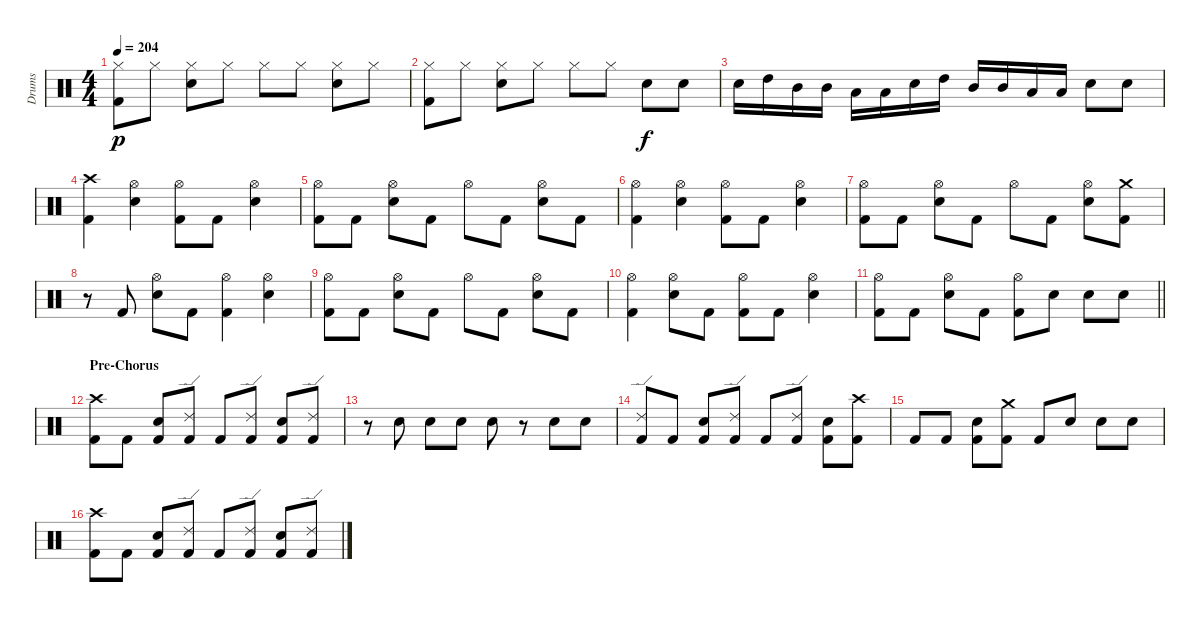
\track ("Drums" "Drums") {instrument percussion}
\staff {score}
\articulation defaults
\ts (4 4)
\tempo 204
\clef neutral
\ks c
("Hi-Hat (closed)" "Kick (hit) 2").8{dy p} "Hi-Hat (closed)".8 ("Hi-Hat (closed)" "Snare (hit) 2").8 "Hi-Hat (closed)".8 "Hi-Hat (closed)".8 "Hi-Hat (closed)".8 ("Hi-Hat (closed)" "Snare (hit) 2").8 "Hi-Hat (closed)".8 |
("Hi-Hat (closed)" "Kick (hit) 2").8 "Hi-Hat (closed)".8 ("Hi-Hat (closed)" "Snare (hit) 2").8 "Hi-Hat (closed)".8 "Hi-Hat (closed)".8 "Hi-Hat (closed)".8 "Snare (hit) 2".8{dy f} "Snare (hit) 2".8 |
"Snare (hit) 2".16 "High Tom (hit)".16 "Mid Tom (hit)".16 "Mid Tom (hit)".16 "Low Tom (hit)".16 "Low Tom (hit)".16 "Snare (hit) 2".16 "High Tom (hit)".16 "Mid Tom (hit)".16 "Mid Tom (hit)".16 "Low Tom (hit)".16 "Low Tom (hit)".16 "Snare (hit) 2".8 "Snare (hit) 2".8 |
("Crash high (hit)" "Kick (hit) 2").4 ("Hi-Hat (open)" "Snare (hit) 2").4 ("Hi-Hat (open)" "Kick (hit) 2").8 "Kick (hit) 2".8 ("Hi-Hat (open)" "Snare (hit) 2").4 |
("Hi-Hat (open)" "Kick (hit) 2").8 "Kick (hit) 2".8 ("Hi-Hat (open)" "Snare (hit) 2").8 "Kick (hit) 2".8 "Hi-Hat (open)".8 "Kick (hit) 2".8 ("Hi-Hat (open)" "Snare (hit) 2").8 "Kick (hit) 2".8 |
("Hi-Hat (open)" "Kick (hit) 2").4 ("Hi-Hat (open)" "Snare (hit) 2").4 ("Hi-Hat (open)" "Kick (hit) 2").8 "Kick (hit) 2".8 ("Hi-Hat (open)" "Snare (hit) 2").4 |
("Hi-Hat (open)" "Kick (hit) 2").8 "Kick (hit) 2".8 ("Hi-Hat (open)" "Snare (hit) 2").8 "Kick (hit) 2".8 "Hi-Hat (open)".8 "Kick (hit) 2".8 ("Hi-Hat (open)" "Snare (hit) 2").8 ("Crash medium (hit)" "Kick (hit) 2").8 |
r.8 "Kick (hit) 2".8 ("Hi-Hat (open)" "Snare (hit) 2").8 "Kick (hit) 2".8 ("Hi-Hat (open)" "Kick (hit) 2").4 ("Hi-Hat (open)" "Snare (hit) 2").4 |
("Hi-Hat (open)" "Kick (hit) 2").8 "Kick (hit) 2".8 ("Hi-Hat (open)" "Snare (hit) 2").8 "Kick (hit) 2".8 "Hi-Hat (open)".8 "Kick (hit) 2".8 ("Hi-Hat (open)" "Snare (hit) 2").8 "Kick (hit) 2".8 |
("Hi-Hat (open)" "Kick (hit) 2").4 ("Hi-Hat (open)" "Snare (hit) 2").8 "Kick (hit) 2".8 ("Hi-Hat (open)" "Kick (hit) 2").8 "Kick (hit) 2".8 ("Hi-Hat (open)" "Snare (hit) 2").4 |
\barLineRight lightlight
("Hi-Hat (open)" "Kick (hit) 2").8 "Kick (hit) 2".8 ("Hi-Hat (open)" "Snare (hit) 2").8 "Kick (hit) 2".8 ("Hi-Hat (open)" "Kick (hit) 2").8 "Snare (hit) 2".8 "Snare (hit) 2".8 "Snare (hit) 2".8 |
\section ("" "Pre-Chorus")
("Crash high (hit)" "Kick (hit) 2").8 "Kick (hit) 2".8 ("Snare (hit) 2" "Kick (hit) 2").8 ("Ride (edge) 2" "Kick (hit) 2").8 "Kick (hit) 2".8 ("Ride (edge) 2" "Kick (hit) 2").8 ("Snare (hit) 2" "Kick (hit) 2").8 ("Ride (edge) 2" "Kick (hit) 2").8 |
r.8 "Snare (hit) 2".8 "Snare (hit) 2".8 "Snare (hit) 2".8 "Snare (hit) 2".8 r.8 "Snare (hit) 2".8 "Snare (hit) 2".8 |
("Ride (edge) 2" "Kick (hit) 2").8 "Kick (hit) 2".8 ("Snare (hit) 2" "Kick (hit) 2").8 ("Ride (edge) 2" "Kick (hit) 2").8 "Kick (hit) 2".8 ("Ride (edge) 2" "Kick (hit) 2").8 ("Snare (hit) 2" "Kick (hit) 2").8 ("Crash high (hit)" "Kick (hit) 2").8 |
"Kick (hit) 2".8 "Kick (hit) 2".8 ("Snare (hit) 2" "Kick (hit) 2").8 ("Crash medium (hit)" "Kick (hit) 2").8 "Kick (hit) 2".8 "Snare (hit) 2".8 "Snare (hit) 2".8 "Snare (hit) 2".8 |
("Crash high (hit)" "Kick (hit) 2").8 "Kick (hit) 2".8 ("Snare (hit) 2" "Kick (hit) 2").8 ("Ride (edge) 2" "Kick (hit) 2").8 "Kick (hit) 2".8 ("Ride (edge) 2" "Kick (hit) 2").8 ("Snare (hit) 2" "Kick (hit) 2").8 ("Ride (edge) 2" "Kick (hit) 2").8
